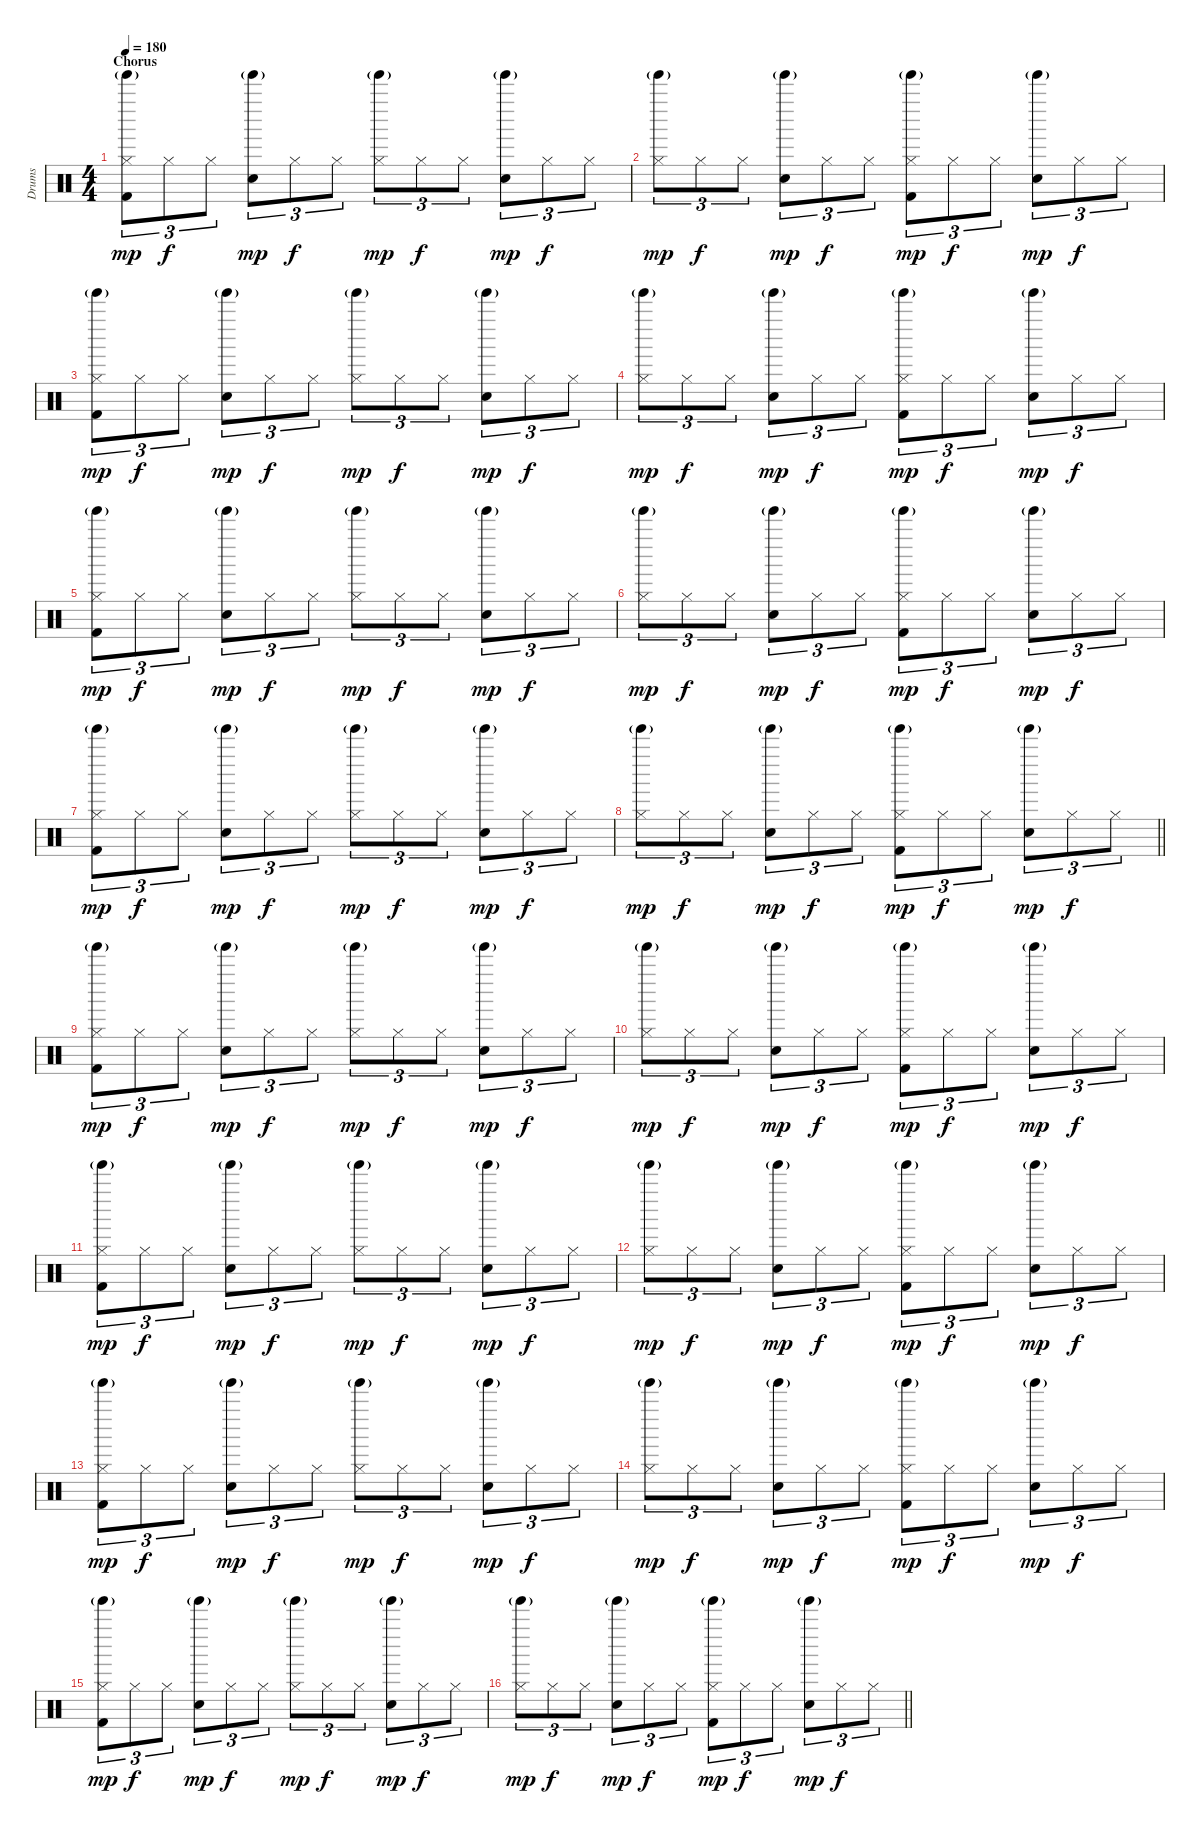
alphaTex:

\track ("Drums" "Drums") {instrument percussion}
\staff {score}
\articulation defaults
\ts (4 4)
\section ("" "Chorus")
\tempo 180
\clef neutral
\ks c
("Tinkle Bell (hit)"{g} "Hi-Hat (closed)" "Kick (hit) 2").8{tu (3 2) dy mp} "Hi-Hat (closed)".8{tu (3 2) dy f} "Hi-Hat (closed)".8{tu (3 2)} ("Tinkle Bell (hit)"{g} "Electric Snare (hit)").8{tu (3 2) dy mp} "Hi-Hat (closed)".8{tu (3 2) dy f} "Hi-Hat (closed)".8{tu (3 2)} ("Tinkle Bell (hit)"{g} "Hi-Hat (closed)").8{tu (3 2) dy mp} "Hi-Hat (closed)".8{tu (3 2) dy f} "Hi-Hat (closed)".8{tu (3 2)} ("Tinkle Bell (hit)"{g} "Electric Snare (hit)").8{tu (3 2) dy mp} "Hi-Hat (closed)".8{tu (3 2) dy f} "Hi-Hat (closed)".8{tu (3 2)} |
("Tinkle Bell (hit)"{g} "Hi-Hat (closed)").8{tu (3 2) dy mp} "Hi-Hat (closed)".8{tu (3 2) dy f} "Hi-Hat (closed)".8{tu (3 2)} ("Tinkle Bell (hit)"{g} "Electric Snare (hit)").8{tu (3 2) dy mp} "Hi-Hat (closed)".8{tu (3 2) dy f} "Hi-Hat (closed)".8{tu (3 2)} ("Tinkle Bell (hit)"{g} "Hi-Hat (closed)" "Kick (hit) 2").8{tu (3 2) dy mp} "Hi-Hat (closed)".8{tu (3 2) dy f} "Hi-Hat (closed)".8{tu (3 2)} ("Tinkle Bell (hit)"{g} "Electric Snare (hit)").8{tu (3 2) dy mp} "Hi-Hat (closed)".8{tu (3 2) dy f} "Hi-Hat (closed)".8{tu (3 2)} |
("Tinkle Bell (hit)"{g} "Hi-Hat (closed)" "Kick (hit) 2").8{tu (3 2) dy mp} "Hi-Hat (closed)".8{tu (3 2) dy f} "Hi-Hat (closed)".8{tu (3 2)} ("Tinkle Bell (hit)"{g} "Electric Snare (hit)").8{tu (3 2) dy mp} "Hi-Hat (closed)".8{tu (3 2) dy f} "Hi-Hat (closed)".8{tu (3 2)} ("Tinkle Bell (hit)"{g} "Hi-Hat (closed)").8{tu (3 2) dy mp} "Hi-Hat (closed)".8{tu (3 2) dy f} "Hi-Hat (closed)".8{tu (3 2)} ("Tinkle Bell (hit)"{g} "Electric Snare (hit)").8{tu (3 2) dy mp} "Hi-Hat (closed)".8{tu (3 2) dy f} "Hi-Hat (closed)".8{tu (3 2)} |
("Tinkle Bell (hit)"{g} "Hi-Hat (closed)").8{tu (3 2) dy mp} "Hi-Hat (closed)".8{tu (3 2) dy f} "Hi-Hat (closed)".8{tu (3 2)} ("Tinkle Bell (hit)"{g} "Electric Snare (hit)").8{tu (3 2) dy mp} "Hi-Hat (closed)".8{tu (3 2) dy f} "Hi-Hat (closed)".8{tu (3 2)} ("Tinkle Bell (hit)"{g} "Hi-Hat (closed)" "Kick (hit) 2").8{tu (3 2) dy mp} "Hi-Hat (closed)".8{tu (3 2) dy f} "Hi-Hat (closed)".8{tu (3 2)} ("Tinkle Bell (hit)"{g} "Electric Snare (hit)").8{tu (3 2) dy mp} "Hi-Hat (closed)".8{tu (3 2) dy f} "Hi-Hat (closed)".8{tu (3 2)} |
("Tinkle Bell (hit)"{g} "Hi-Hat (closed)" "Kick (hit) 2").8{tu (3 2) dy mp} "Hi-Hat (closed)".8{tu (3 2) dy f} "Hi-Hat (closed)".8{tu (3 2)} ("Tinkle Bell (hit)"{g} "Electric Snare (hit)").8{tu (3 2) dy mp} "Hi-Hat (closed)".8{tu (3 2) dy f} "Hi-Hat (closed)".8{tu (3 2)} ("Tinkle Bell (hit)"{g} "Hi-Hat (closed)").8{tu (3 2) dy mp} "Hi-Hat (closed)".8{tu (3 2) dy f} "Hi-Hat (closed)".8{tu (3 2)} ("Tinkle Bell (hit)"{g} "Electric Snare (hit)").8{tu (3 2) dy mp} "Hi-Hat (closed)".8{tu (3 2) dy f} "Hi-Hat (closed)".8{tu (3 2)} |
("Tinkle Bell (hit)"{g} "Hi-Hat (closed)").8{tu (3 2) dy mp} "Hi-Hat (closed)".8{tu (3 2) dy f} "Hi-Hat (closed)".8{tu (3 2)} ("Tinkle Bell (hit)"{g} "Electric Snare (hit)").8{tu (3 2) dy mp} "Hi-Hat (closed)".8{tu (3 2) dy f} "Hi-Hat (closed)".8{tu (3 2)} ("Tinkle Bell (hit)"{g} "Hi-Hat (closed)" "Kick (hit) 2").8{tu (3 2) dy mp} "Hi-Hat (closed)".8{tu (3 2) dy f} "Hi-Hat (closed)".8{tu (3 2)} ("Tinkle Bell (hit)"{g} "Electric Snare (hit)").8{tu (3 2) dy mp} "Hi-Hat (closed)".8{tu (3 2) dy f} "Hi-Hat (closed)".8{tu (3 2)} |
("Tinkle Bell (hit)"{g} "Hi-Hat (closed)" "Kick (hit) 2").8{tu (3 2) dy mp} "Hi-Hat (closed)".8{tu (3 2) dy f} "Hi-Hat (closed)".8{tu (3 2)} ("Tinkle Bell (hit)"{g} "Electric Snare (hit)").8{tu (3 2) dy mp} "Hi-Hat (closed)".8{tu (3 2) dy f} "Hi-Hat (closed)".8{tu (3 2)} ("Tinkle Bell (hit)"{g} "Hi-Hat (closed)").8{tu (3 2) dy mp} "Hi-Hat (closed)".8{tu (3 2) dy f} "Hi-Hat (closed)".8{tu (3 2)} ("Tinkle Bell (hit)"{g} "Electric Snare (hit)").8{tu (3 2) dy mp} "Hi-Hat (closed)".8{tu (3 2) dy f} "Hi-Hat (closed)".8{tu (3 2)} |
\barLineRight lightlight
("Tinkle Bell (hit)"{g} "Hi-Hat (closed)").8{tu (3 2) dy mp} "Hi-Hat (closed)".8{tu (3 2) dy f} "Hi-Hat (closed)".8{tu (3 2)} ("Tinkle Bell (hit)"{g} "Electric Snare (hit)").8{tu (3 2) dy mp} "Hi-Hat (closed)".8{tu (3 2) dy f} "Hi-Hat (closed)".8{tu (3 2)} ("Tinkle Bell (hit)"{g} "Hi-Hat (closed)" "Kick (hit) 2").8{tu (3 2) dy mp} "Hi-Hat (closed)".8{tu (3 2) dy f} "Hi-Hat (closed)".8{tu (3 2)} ("Tinkle Bell (hit)"{g} "Electric Snare (hit)").8{tu (3 2) dy mp} "Hi-Hat (closed)".8{tu (3 2) dy f} "Hi-Hat (closed)".8{tu (3 2)} |
("Tinkle Bell (hit)"{g} "Hi-Hat (closed)" "Kick (hit) 2").8{tu (3 2) dy mp} "Hi-Hat (closed)".8{tu (3 2) dy f} "Hi-Hat (closed)".8{tu (3 2)} ("Tinkle Bell (hit)"{g} "Electric Snare (hit)").8{tu (3 2) dy mp} "Hi-Hat (closed)".8{tu (3 2) dy f} "Hi-Hat (closed)".8{tu (3 2)} ("Tinkle Bell (hit)"{g} "Hi-Hat (closed)").8{tu (3 2) dy mp} "Hi-Hat (closed)".8{tu (3 2) dy f} "Hi-Hat (closed)".8{tu (3 2)} ("Tinkle Bell (hit)"{g} "Electric Snare (hit)").8{tu (3 2) dy mp} "Hi-Hat (closed)".8{tu (3 2) dy f} "Hi-Hat (closed)".8{tu (3 2)} |
("Tinkle Bell (hit)"{g} "Hi-Hat (closed)").8{tu (3 2) dy mp} "Hi-Hat (closed)".8{tu (3 2) dy f} "Hi-Hat (closed)".8{tu (3 2)} ("Tinkle Bell (hit)"{g} "Electric Snare (hit)").8{tu (3 2) dy mp} "Hi-Hat (closed)".8{tu (3 2) dy f} "Hi-Hat (closed)".8{tu (3 2)} ("Tinkle Bell (hit)"{g} "Hi-Hat (closed)" "Kick (hit) 2").8{tu (3 2) dy mp} "Hi-Hat (closed)".8{tu (3 2) dy f} "Hi-Hat (closed)".8{tu (3 2)} ("Tinkle Bell (hit)"{g} "Electric Snare (hit)").8{tu (3 2) dy mp} "Hi-Hat (closed)".8{tu (3 2) dy f} "Hi-Hat (closed)".8{tu (3 2)} |
("Tinkle Bell (hit)"{g} "Hi-Hat (closed)" "Kick (hit) 2").8{tu (3 2) dy mp} "Hi-Hat (closed)".8{tu (3 2) dy f} "Hi-Hat (closed)".8{tu (3 2)} ("Tinkle Bell (hit)"{g} "Electric Snare (hit)").8{tu (3 2) dy mp} "Hi-Hat (closed)".8{tu (3 2) dy f} "Hi-Hat (closed)".8{tu (3 2)} ("Tinkle Bell (hit)"{g} "Hi-Hat (closed)").8{tu (3 2) dy mp} "Hi-Hat (closed)".8{tu (3 2) dy f} "Hi-Hat (closed)".8{tu (3 2)} ("Tinkle Bell (hit)"{g} "Electric Snare (hit)").8{tu (3 2) dy mp} "Hi-Hat (closed)".8{tu (3 2) dy f} "Hi-Hat (closed)".8{tu (3 2)} |
("Tinkle Bell (hit)"{g} "Hi-Hat (closed)").8{tu (3 2) dy mp} "Hi-Hat (closed)".8{tu (3 2) dy f} "Hi-Hat (closed)".8{tu (3 2)} ("Tinkle Bell (hit)"{g} "Electric Snare (hit)").8{tu (3 2) dy mp} "Hi-Hat (closed)".8{tu (3 2) dy f} "Hi-Hat (closed)".8{tu (3 2)} ("Tinkle Bell (hit)"{g} "Hi-Hat (closed)" "Kick (hit) 2").8{tu (3 2) dy mp} "Hi-Hat (closed)".8{tu (3 2) dy f} "Hi-Hat (closed)".8{tu (3 2)} ("Tinkle Bell (hit)"{g} "Electric Snare (hit)").8{tu (3 2) dy mp} "Hi-Hat (closed)".8{tu (3 2) dy f} "Hi-Hat (closed)".8{tu (3 2)} |
("Tinkle Bell (hit)"{g} "Hi-Hat (closed)" "Kick (hit) 2").8{tu (3 2) dy mp} "Hi-Hat (closed)".8{tu (3 2) dy f} "Hi-Hat (closed)".8{tu (3 2)} ("Tinkle Bell (hit)"{g} "Electric Snare (hit)").8{tu (3 2) dy mp} "Hi-Hat (closed)".8{tu (3 2) dy f} "Hi-Hat (closed)".8{tu (3 2)} ("Tinkle Bell (hit)"{g} "Hi-Hat (closed)").8{tu (3 2) dy mp} "Hi-Hat (closed)".8{tu (3 2) dy f} "Hi-Hat (closed)".8{tu (3 2)} ("Tinkle Bell (hit)"{g} "Electric Snare (hit)").8{tu (3 2) dy mp} "Hi-Hat (closed)".8{tu (3 2) dy f} "Hi-Hat (closed)".8{tu (3 2)} |
("Tinkle Bell (hit)"{g} "Hi-Hat (closed)").8{tu (3 2) dy mp} "Hi-Hat (closed)".8{tu (3 2) dy f} "Hi-Hat (closed)".8{tu (3 2)} ("Tinkle Bell (hit)"{g} "Electric Snare (hit)").8{tu (3 2) dy mp} "Hi-Hat (closed)".8{tu (3 2) dy f} "Hi-Hat (closed)".8{tu (3 2)} ("Tinkle Bell (hit)"{g} "Hi-Hat (closed)" "Kick (hit) 2").8{tu (3 2) dy mp} "Hi-Hat (closed)".8{tu (3 2) dy f} "Hi-Hat (closed)".8{tu (3 2)} ("Tinkle Bell (hit)"{g} "Electric Snare (hit)").8{tu (3 2) dy mp} "Hi-Hat (closed)".8{tu (3 2) dy f} "Hi-Hat (closed)".8{tu (3 2)} |
("Tinkle Bell (hit)"{g} "Hi-Hat (closed)" "Kick (hit) 2").8{tu (3 2) dy mp} "Hi-Hat (closed)".8{tu (3 2) dy f} "Hi-Hat (closed)".8{tu (3 2)} ("Tinkle Bell (hit)"{g} "Electric Snare (hit)").8{tu (3 2) dy mp} "Hi-Hat (closed)".8{tu (3 2) dy f} "Hi-Hat (closed)".8{tu (3 2)} ("Tinkle Bell (hit)"{g} "Hi-Hat (closed)").8{tu (3 2) dy mp} "Hi-Hat (closed)".8{tu (3 2) dy f} "Hi-Hat (closed)".8{tu (3 2)} ("Tinkle Bell (hit)"{g} "Electric Snare (hit)").8{tu (3 2) dy mp} "Hi-Hat (closed)".8{tu (3 2) dy f} "Hi-Hat (closed)".8{tu (3 2)} |
\barLineRight lightlight
("Tinkle Bell (hit)"{g} "Hi-Hat (closed)").8{tu (3 2) dy mp} "Hi-Hat (closed)".8{tu (3 2) dy f} "Hi-Hat (closed)".8{tu (3 2)} ("Tinkle Bell (hit)"{g} "Electric Snare (hit)").8{tu (3 2) dy mp} "Hi-Hat (closed)".8{tu (3 2) dy f} "Hi-Hat (closed)".8{tu (3 2)} ("Tinkle Bell (hit)"{g} "Hi-Hat (closed)" "Kick (hit) 2").8{tu (3 2) dy mp} "Hi-Hat (closed)".8{tu (3 2) dy f} "Hi-Hat (closed)".8{tu (3 2)} ("Tinkle Bell (hit)"{g} "Electric Snare (hit)").8{tu (3 2) dy mp} "Hi-Hat (closed)".8{tu (3 2) dy f} "Hi-Hat (closed)".8{tu (3 2)}
